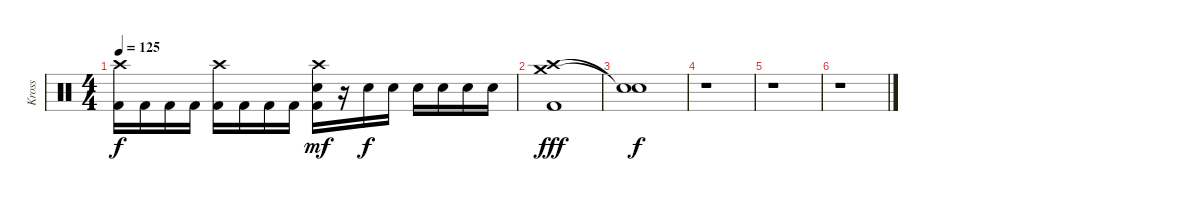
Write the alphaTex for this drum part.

\track ("Kross" "Kross") {instrument percussion}
\staff {score}
\articulation defaults
\ts (4 4)
\tempo 125
\clef neutral
\ks c
("Crash high (hit)" "Kick (hit) 2").16{dy f} "Kick (hit) 2".16 "Kick (hit) 2".16 "Kick (hit) 2".16 ("Crash high (hit)" "Kick (hit) 2").16 "Kick (hit) 2".16 "Kick (hit) 2".16 "Kick (hit) 2".16 ("Crash high (hit)" "Electric Snare (hit)" "Kick (hit) 2").16{dy mf} r.16 "Electric Snare (hit)".16{dy f} "Electric Snare (hit)".16 "Electric Snare (hit)".16 "Electric Snare (hit)".16 "Electric Snare (hit)".16 "Electric Snare (hit)".16 |
("Crash high (hit)" "Crash medium (hit)" "Kick (hit) 2").1{dy fff} |
("Snare (hit)"{t} "Snare (hit)"{t}).1{dy f} |
r.1 |
r.1 |
r.1
